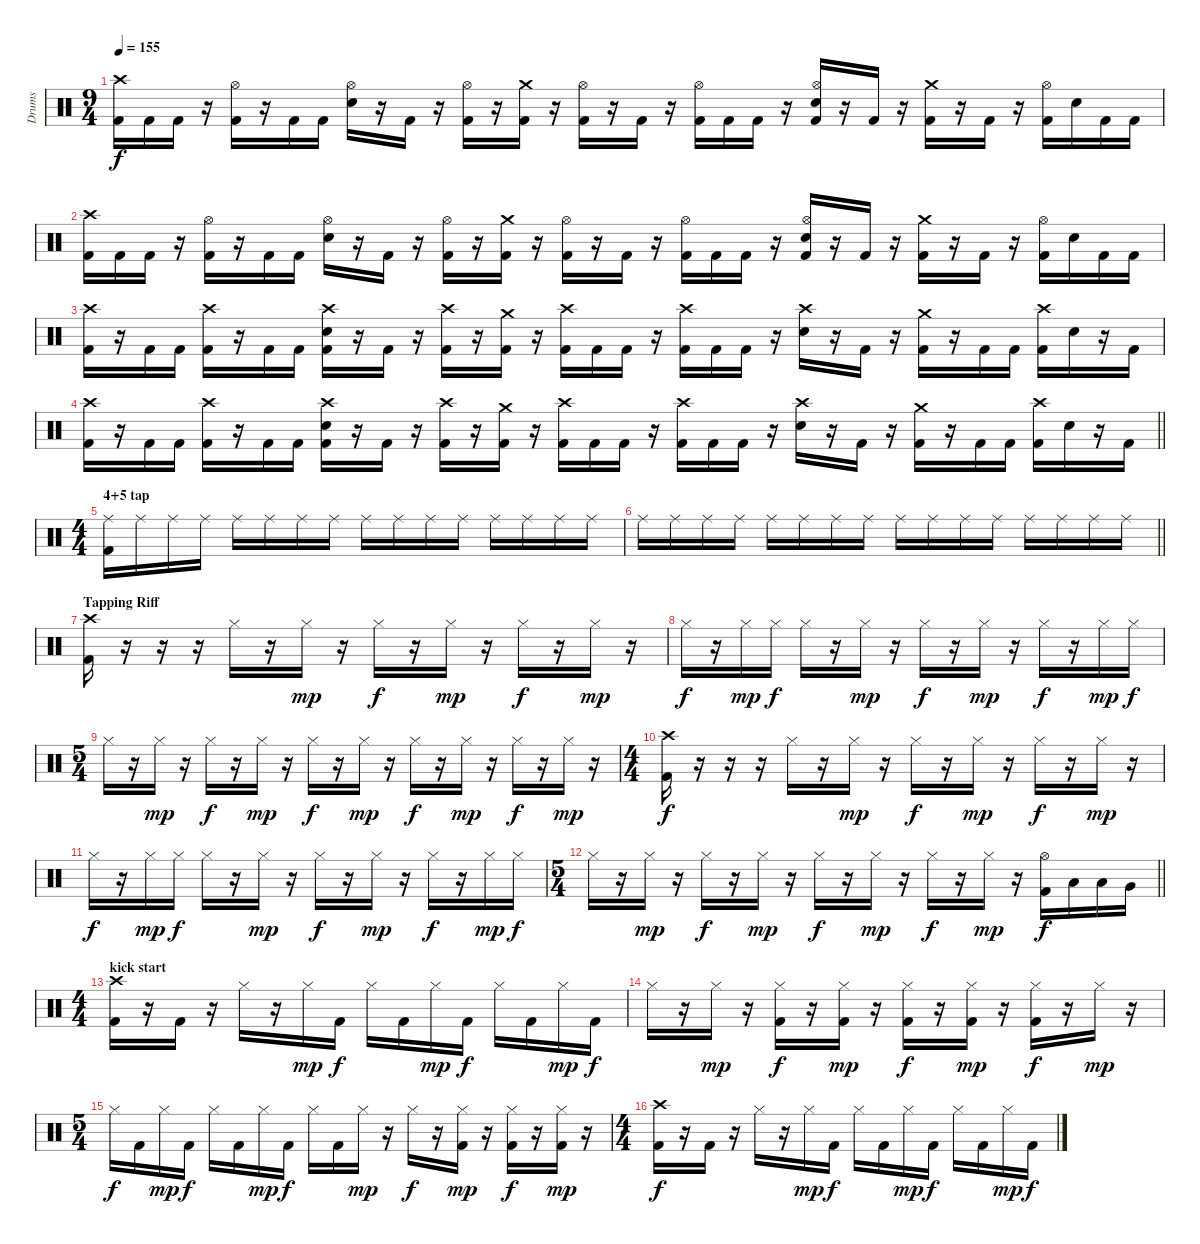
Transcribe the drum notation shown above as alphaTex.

\track ("Drums" "Drums") {instrument percussion}
\staff {score}
\articulation defaults
\ts (9 4)
\tempo 155
\clef neutral
\ks c
("Crash high (hit)" "Kick (hit) 2").16{dy f} "Kick (hit) 2".16 "Kick (hit) 2".16 r.16 ("Hi-Hat (open)" "Kick (hit) 2").16 r.16 "Kick (hit) 2".16 "Kick (hit) 2".16 ("Hi-Hat (open)" "Electric Snare (hit)").16 r.16 "Kick (hit) 2".16 r.16 ("Hi-Hat (open)" "Kick (hit) 2").16 r.16 ("Crash medium (hit)" "Kick (hit) 2").16 r.16 ("Hi-Hat (open)" "Kick (hit) 2").16 r.16 "Kick (hit) 2".16 r.16 ("Hi-Hat (open)" "Kick (hit) 2").16 "Kick (hit) 2".16 "Kick (hit) 2".16 r.16 ("Hi-Hat (open)" "Electric Snare (hit)" "Kick (hit) 2").16 r.16 "Kick (hit) 2".16 r.16 ("Crash medium (hit)" "Kick (hit) 2").16 r.16 "Kick (hit) 2".16 r.16 ("Hi-Hat (open)" "Kick (hit) 2").16 "Electric Snare (hit)".16 "Kick (hit) 2".16 "Kick (hit) 2".16 |
("Crash high (hit)" "Kick (hit) 2").16 "Kick (hit) 2".16 "Kick (hit) 2".16 r.16 ("Hi-Hat (open)" "Kick (hit) 2").16 r.16 "Kick (hit) 2".16 "Kick (hit) 2".16 ("Hi-Hat (open)" "Electric Snare (hit)").16 r.16 "Kick (hit) 2".16 r.16 ("Hi-Hat (open)" "Kick (hit) 2").16 r.16 ("Crash medium (hit)" "Kick (hit) 2").16 r.16 ("Hi-Hat (open)" "Kick (hit) 2").16 r.16 "Kick (hit) 2".16 r.16 ("Hi-Hat (open)" "Kick (hit) 2").16 "Kick (hit) 2".16 "Kick (hit) 2".16 r.16 ("Hi-Hat (open)" "Electric Snare (hit)" "Kick (hit) 2").16 r.16 "Kick (hit) 2".16 r.16 ("Crash medium (hit)" "Kick (hit) 2").16 r.16 "Kick (hit) 2".16 r.16 ("Hi-Hat (open)" "Kick (hit) 2").16 "Electric Snare (hit)".16 "Kick (hit) 2".16 "Kick (hit) 2".16 |
("Crash high (hit)" "Kick (hit) 2").16 r.16 "Kick (hit) 2".16 "Kick (hit) 2".16 ("Crash high (hit)" "Kick (hit) 2").16 r.16 "Kick (hit) 2".16 "Kick (hit) 2".16 ("Crash high (hit)" "Electric Snare (hit)" "Kick (hit) 2").16 r.16 "Kick (hit) 2".16 r.16 ("Crash high (hit)" "Kick (hit) 2").16 r.16 ("Crash medium (hit)" "Kick (hit) 2").16 r.16 ("Crash high (hit)" "Kick (hit) 2").16 "Kick (hit) 2".16 "Kick (hit) 2".16 r.16 ("Crash high (hit)" "Kick (hit) 2").16 "Kick (hit) 2".16 "Kick (hit) 2".16 r.16 ("Crash high (hit)" "Electric Snare (hit)").16 r.16 "Kick (hit) 2".16 r.16 ("Crash medium (hit)" "Kick (hit) 2").16 r.16 "Kick (hit) 2".16 "Kick (hit) 2".16 ("Crash high (hit)" "Kick (hit) 2").16 "Electric Snare (hit)".16 r.16 "Kick (hit) 2".16 |
\barLineRight lightlight
("Crash high (hit)" "Kick (hit) 2").16 r.16 "Kick (hit) 2".16 "Kick (hit) 2".16 ("Crash high (hit)" "Kick (hit) 2").16 r.16 "Kick (hit) 2".16 "Kick (hit) 2".16 ("Crash high (hit)" "Electric Snare (hit)" "Kick (hit) 2").16 r.16 "Kick (hit) 2".16 r.16 ("Crash high (hit)" "Kick (hit) 2").16 r.16 ("Crash medium (hit)" "Kick (hit) 2").16 r.16 ("Crash high (hit)" "Kick (hit) 2").16 "Kick (hit) 2".16 "Kick (hit) 2".16 r.16 ("Crash high (hit)" "Kick (hit) 2").16 "Kick (hit) 2".16 "Kick (hit) 2".16 r.16 ("Crash high (hit)" "Electric Snare (hit)").16 r.16 "Kick (hit) 2".16 r.16 ("Crash medium (hit)" "Kick (hit) 2").16 r.16 "Kick (hit) 2".16 "Kick (hit) 2".16 ("Crash high (hit)" "Kick (hit) 2").16 "Electric Snare (hit)".16 r.16 "Kick (hit) 2".16 |
\ts (4 4)
\section ("" "4+5 tap")
("Ride (middle)" "Kick (hit) 2").16 "Ride (middle)".16 "Ride (middle)".16 "Ride (middle)".16 "Ride (middle)".16 "Ride (middle)".16 "Ride (middle)".16 "Ride (middle)".16 "Ride (middle)".16 "Ride (middle)".16 "Ride (middle)".16 "Ride (middle)".16 "Ride (middle)".16 "Ride (middle)".16 "Ride (middle)".16 "Ride (middle)".16 |
\barLineRight lightlight "Ride (middle)".16 "Ride (middle)".16 "Ride (middle)".16 "Ride (middle)".16 "Ride (middle)".16 "Ride (middle)".16 "Ride (middle)".16 "Ride (middle)".16 "Ride (middle)".16 "Ride (middle)".16 "Ride (middle)".16 "Ride (middle)".16 "Ride (middle)".16 "Ride (middle)".16 "Ride (middle)".16 "Ride (middle)".16
|
\section ("" "Tapping Riff")
("Crash high (hit)" "Kick (hit) 2").16 r.16 r.16 r.16 "Hi-Hat (closed)".16 r.16 "Hi-Hat (closed)".16{dy mp} r.16 "Hi-Hat (closed)".16{dy f} r.16 "Hi-Hat (closed)".16{dy mp} r.16 "Hi-Hat (closed)".16{dy f} r.16 "Hi-Hat (closed)".16{dy mp} r.16 |
"Hi-Hat (closed)".16{dy f} r.16 "Hi-Hat (closed)".16{dy mp} "Hi-Hat (closed)".16{dy f} "Hi-Hat (closed)".16 r.16 "Hi-Hat (closed)".16{dy mp} r.16 "Hi-Hat (closed)".16{dy f} r.16 "Hi-Hat (closed)".16{dy mp} r.16 "Hi-Hat (closed)".16{dy f} r.16 "Hi-Hat (closed)".16{dy mp} "Hi-Hat (closed)".16{dy f} |
\ts (5 4)
"Hi-Hat (closed)".16 r.16 "Hi-Hat (closed)".16{dy mp} r.16 "Hi-Hat (closed)".16{dy f} r.16 "Hi-Hat (closed)".16{dy mp} r.16 "Hi-Hat (closed)".16{dy f} r.16 "Hi-Hat (closed)".16{dy mp} r.16 "Hi-Hat (closed)".16{dy f} r.16 "Hi-Hat (closed)".16{dy mp} r.16 "Hi-Hat (closed)".16{dy f} r.16 "Hi-Hat (closed)".16{dy mp} r.16 |
\ts (4 4)
("Crash high (hit)" "Kick (hit) 2").16{dy f} r.16 r.16 r.16 "Hi-Hat (closed)".16 r.16 "Hi-Hat (closed)".16{dy mp} r.16 "Hi-Hat (closed)".16{dy f} r.16 "Hi-Hat (closed)".16{dy mp} r.16 "Hi-Hat (closed)".16{dy f} r.16 "Hi-Hat (closed)".16{dy mp} r.16 |
"Hi-Hat (closed)".16{dy f} r.16 "Hi-Hat (closed)".16{dy mp} "Hi-Hat (closed)".16{dy f} "Hi-Hat (closed)".16 r.16 "Hi-Hat (closed)".16{dy mp} r.16 "Hi-Hat (closed)".16{dy f} r.16 "Hi-Hat (closed)".16{dy mp} r.16 "Hi-Hat (closed)".16{dy f} r.16 "Hi-Hat (closed)".16{dy mp} "Hi-Hat (closed)".16{dy f} |
\ts (5 4)
\barLineRight lightlight "Hi-Hat (closed)".16
r.16 "Hi-Hat (closed)".16{dy mp} r.16 "Hi-Hat (closed)".16{dy f} r.16 "Hi-Hat (closed)".16{dy mp} r.16 "Hi-Hat (closed)".16{dy f} r.16 "Hi-Hat (closed)".16{dy mp} r.16 "Hi-Hat (closed)".16{dy f} r.16 "Hi-Hat (closed)".16{dy mp} r.16 ("Hi-Hat (open)" "Kick (hit) 2").16{dy f} "Low Tom (hit)".16 "Low Tom (hit)".16 "Very Low Tom (hit)".16 |
\ts (4 4)
\section ("" "kick start")
("Crash high (hit)" "Kick (hit) 2").16 r.16 "Kick (hit) 2".16 r.16 "Hi-Hat (closed)".16 r.16 "Hi-Hat (closed)".16{dy mp} "Kick (hit) 2".16{dy f} "Hi-Hat (closed)".16 "Kick (hit) 2".16 "Hi-Hat (closed)".16{dy mp} "Kick (hit) 2".16{dy f} "Hi-Hat (closed)".16 "Kick (hit) 2".16 "Hi-Hat (closed)".16{dy mp} "Kick (hit) 2".16{dy f} |
"Hi-Hat (closed)".16 r.16 "Hi-Hat (closed)".16{dy mp} r.16 ("Hi-Hat (closed)" "Kick (hit) 2").16{dy f} r.16 ("Hi-Hat (closed)" "Kick (hit) 2").16{dy mp} r.16 ("Hi-Hat (closed)" "Kick (hit) 2").16{dy f} r.16 ("Hi-Hat (closed)" "Kick (hit) 2").16{dy mp} r.16 ("Hi-Hat (closed)" "Kick (hit) 2").16{dy f} r.16 "Hi-Hat (closed)".16{dy mp} r.16 |
\ts (5 4)
"Hi-Hat (closed)".16{dy f} "Kick (hit) 2".16 "Hi-Hat (closed)".16{dy mp} "Kick (hit) 2".16{dy f} "Hi-Hat (closed)".16 "Kick (hit) 2".16 "Hi-Hat (closed)".16{dy mp} "Kick (hit) 2".16{dy f} "Hi-Hat (closed)".16 "Kick (hit) 2".16 "Hi-Hat (closed)".16{dy mp} r.16 "Hi-Hat (closed)".16{dy f} r.16 ("Hi-Hat (closed)" "Kick (hit) 2").16{dy mp} r.16 ("Hi-Hat (closed)" "Kick (hit) 2").16{dy f} r.16 ("Hi-Hat (closed)" "Kick (hit) 2").16{dy mp} r.16 |
\ts (4 4)
("Crash high (hit)" "Kick (hit) 2").16{dy f} r.16 "Kick (hit) 2".16 r.16 "Hi-Hat (closed)".16 r.16 "Hi-Hat (closed)".16{dy mp} "Kick (hit) 2".16{dy f} "Hi-Hat (closed)".16 "Kick (hit) 2".16 "Hi-Hat (closed)".16{dy mp} "Kick (hit) 2".16{dy f} "Hi-Hat (closed)".16 "Kick (hit) 2".16 "Hi-Hat (closed)".16{dy mp} "Kick (hit) 2".16{dy f}
